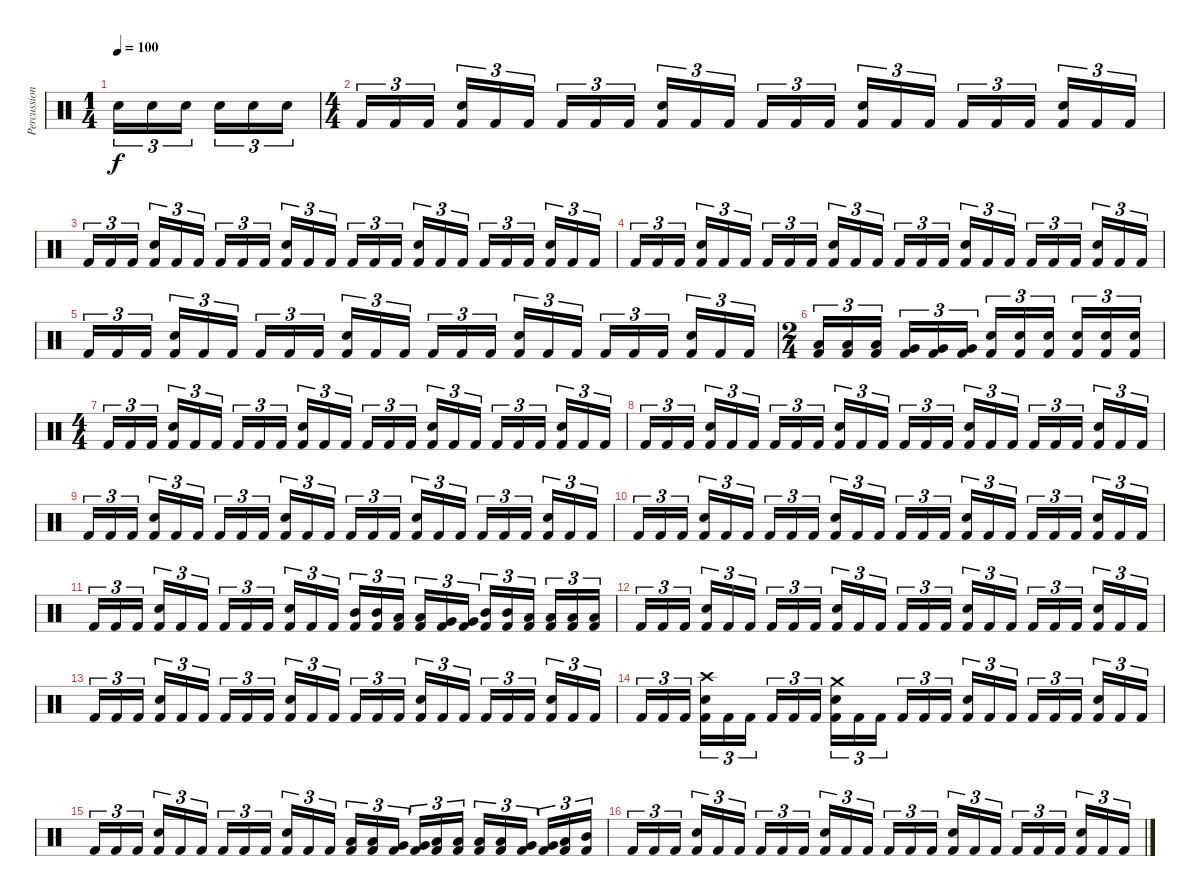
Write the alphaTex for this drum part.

\track ("Percussions" "Percussion") {instrument percussion}
\staff {score}
\articulation defaults
\ts (1 4)
\tempo 100
\clef neutral
\ks c "Electric Snare (hit)".16{tu (3 2) dy f} "Electric Snare (hit)".16{tu (3 2)} "Electric Snare (hit)".16{tu (3 2)} "Electric Snare (hit)".16{tu (3 2)} "Electric Snare (hit)".16{tu (3 2)} "Electric Snare (hit)".16{tu (3 2)}
|
\ts (4 4)
"Kick (hit) 2".16{tu (3 2)} "Kick (hit) 2".16{tu (3 2)} "Kick (hit) 2".16{tu (3 2)} ("Electric Snare (hit)" "Kick (hit) 2").16{tu (3 2)} "Kick (hit) 2".16{tu (3 2)} "Kick (hit) 2".16{tu (3 2)} "Kick (hit) 2".16{tu (3 2)} "Kick (hit) 2".16{tu (3 2)} "Kick (hit) 2".16{tu (3 2)} ("Electric Snare (hit)" "Kick (hit) 2").16{tu (3 2)} "Kick (hit) 2".16{tu (3 2)} "Kick (hit) 2".16{tu (3 2)} "Kick (hit) 2".16{tu (3 2)} "Kick (hit) 2".16{tu (3 2)} "Kick (hit) 2".16{tu (3 2)} ("Electric Snare (hit)" "Kick (hit) 2").16{tu (3 2)} "Kick (hit) 2".16{tu (3 2)} "Kick (hit) 2".16{tu (3 2)} "Kick (hit) 2".16{tu (3 2)} "Kick (hit) 2".16{tu (3 2)} "Kick (hit) 2".16{tu (3 2)} ("Electric Snare (hit)" "Kick (hit) 2").16{tu (3 2)} "Kick (hit) 2".16{tu (3 2)} "Kick (hit) 2".16{tu (3 2)} |
"Kick (hit) 2".16{tu (3 2)} "Kick (hit) 2".16{tu (3 2)} "Kick (hit) 2".16{tu (3 2)} ("Electric Snare (hit)" "Kick (hit) 2").16{tu (3 2)} "Kick (hit) 2".16{tu (3 2)} "Kick (hit) 2".16{tu (3 2)} "Kick (hit) 2".16{tu (3 2)} "Kick (hit) 2".16{tu (3 2)} "Kick (hit) 2".16{tu (3 2)} ("Electric Snare (hit)" "Kick (hit) 2").16{tu (3 2)} "Kick (hit) 2".16{tu (3 2)} "Kick (hit) 2".16{tu (3 2)} "Kick (hit) 2".16{tu (3 2)} "Kick (hit) 2".16{tu (3 2)} "Kick (hit) 2".16{tu (3 2)} ("Electric Snare (hit)" "Kick (hit) 2").16{tu (3 2)} "Kick (hit) 2".16{tu (3 2)} "Kick (hit) 2".16{tu (3 2)} "Kick (hit) 2".16{tu (3 2)} "Kick (hit) 2".16{tu (3 2)} "Kick (hit) 2".16{tu (3 2)} ("Electric Snare (hit)" "Kick (hit) 2").16{tu (3 2)} "Kick (hit) 2".16{tu (3 2)} "Kick (hit) 2".16{tu (3 2)} |
"Kick (hit) 2".16{tu (3 2)} "Kick (hit) 2".16{tu (3 2)} "Kick (hit) 2".16{tu (3 2)} ("Electric Snare (hit)" "Kick (hit) 2").16{tu (3 2)} "Kick (hit) 2".16{tu (3 2)} "Kick (hit) 2".16{tu (3 2)} "Kick (hit) 2".16{tu (3 2)} "Kick (hit) 2".16{tu (3 2)} "Kick (hit) 2".16{tu (3 2)} ("Electric Snare (hit)" "Kick (hit) 2").16{tu (3 2)} "Kick (hit) 2".16{tu (3 2)} "Kick (hit) 2".16{tu (3 2)} "Kick (hit) 2".16{tu (3 2)} "Kick (hit) 2".16{tu (3 2)} "Kick (hit) 2".16{tu (3 2)} ("Electric Snare (hit)" "Kick (hit) 2").16{tu (3 2)} "Kick (hit) 2".16{tu (3 2)} "Kick (hit) 2".16{tu (3 2)} "Kick (hit) 2".16{tu (3 2)} "Kick (hit) 2".16{tu (3 2)} "Kick (hit) 2".16{tu (3 2)} ("Electric Snare (hit)" "Kick (hit) 2").16{tu (3 2)} "Kick (hit) 2".16{tu (3 2)} "Kick (hit) 2".16{tu (3 2)} |
"Kick (hit) 2".16{tu (3 2)} "Kick (hit) 2".16{tu (3 2)} "Kick (hit) 2".16{tu (3 2)} ("Electric Snare (hit)" "Kick (hit) 2").16{tu (3 2)} "Kick (hit) 2".16{tu (3 2)} "Kick (hit) 2".16{tu (3 2)} "Kick (hit) 2".16{tu (3 2)} "Kick (hit) 2".16{tu (3 2)} "Kick (hit) 2".16{tu (3 2)} ("Electric Snare (hit)" "Kick (hit) 2").16{tu (3 2)} "Kick (hit) 2".16{tu (3 2)} "Kick (hit) 2".16{tu (3 2)} "Kick (hit) 2".16{tu (3 2)} "Kick (hit) 2".16{tu (3 2)} "Kick (hit) 2".16{tu (3 2)} ("Electric Snare (hit)" "Kick (hit) 2").16{tu (3 2)} "Kick (hit) 2".16{tu (3 2)} "Kick (hit) 2".16{tu (3 2)} "Kick (hit) 2".16{tu (3 2)} "Kick (hit) 2".16{tu (3 2)} "Kick (hit) 2".16{tu (3 2)} ("Electric Snare (hit)" "Kick (hit) 2").16{tu (3 2)} "Kick (hit) 2".16{tu (3 2)} "Kick (hit) 2".16{tu (3 2)} |
\ts (2 4)
("Low Tom (hit)" "Kick (hit) 2").16{tu (3 2)} ("Low Tom (hit)" "Kick (hit) 2").16{tu (3 2)} ("Low Tom (hit)" "Kick (hit) 2").16{tu (3 2)} ("Very Low Tom (hit)" "Kick (hit) 2").16{tu (3 2)} ("Very Low Tom (hit)" "Kick (hit) 2").16{tu (3 2)} ("Very Low Tom (hit)" "Kick (hit) 2").16{tu (3 2)} ("Electric Snare (hit)" "Kick (hit) 2").16{tu (3 2)} ("Electric Snare (hit)" "Kick (hit) 2").16{tu (3 2)} ("Electric Snare (hit)" "Kick (hit) 2").16{tu (3 2)} ("Electric Snare (hit)" "Kick (hit) 2").16{tu (3 2)} ("Electric Snare (hit)" "Kick (hit) 2").16{tu (3 2)} ("Electric Snare (hit)" "Kick (hit) 2").16{tu (3 2)} |
\ts (4 4)
"Kick (hit) 2".16{tu (3 2)} "Kick (hit) 2".16{tu (3 2)} "Kick (hit) 2".16{tu (3 2)} ("Electric Snare (hit)" "Kick (hit) 2").16{tu (3 2)} "Kick (hit) 2".16{tu (3 2)} "Kick (hit) 2".16{tu (3 2)} "Kick (hit) 2".16{tu (3 2)} "Kick (hit) 2".16{tu (3 2)} "Kick (hit) 2".16{tu (3 2)} ("Electric Snare (hit)" "Kick (hit) 2").16{tu (3 2)} "Kick (hit) 2".16{tu (3 2)} "Kick (hit) 2".16{tu (3 2)} "Kick (hit) 2".16{tu (3 2)} "Kick (hit) 2".16{tu (3 2)} "Kick (hit) 2".16{tu (3 2)} ("Electric Snare (hit)" "Kick (hit) 2").16{tu (3 2)} "Kick (hit) 2".16{tu (3 2)} "Kick (hit) 2".16{tu (3 2)} "Kick (hit) 2".16{tu (3 2)} "Kick (hit) 2".16{tu (3 2)} "Kick (hit) 2".16{tu (3 2)} ("Electric Snare (hit)" "Kick (hit) 2").16{tu (3 2)} "Kick (hit) 2".16{tu (3 2)} "Kick (hit) 2".16{tu (3 2)} |
"Kick (hit) 2".16{tu (3 2)} "Kick (hit) 2".16{tu (3 2)} "Kick (hit) 2".16{tu (3 2)} ("Electric Snare (hit)" "Kick (hit) 2").16{tu (3 2)} "Kick (hit) 2".16{tu (3 2)} "Kick (hit) 2".16{tu (3 2)} "Kick (hit) 2".16{tu (3 2)} "Kick (hit) 2".16{tu (3 2)} "Kick (hit) 2".16{tu (3 2)} ("Electric Snare (hit)" "Kick (hit) 2").16{tu (3 2)} "Kick (hit) 2".16{tu (3 2)} "Kick (hit) 2".16{tu (3 2)} "Kick (hit) 2".16{tu (3 2)} "Kick (hit) 2".16{tu (3 2)} "Kick (hit) 2".16{tu (3 2)} ("Electric Snare (hit)" "Kick (hit) 2").16{tu (3 2)} "Kick (hit) 2".16{tu (3 2)} "Kick (hit) 2".16{tu (3 2)} "Kick (hit) 2".16{tu (3 2)} "Kick (hit) 2".16{tu (3 2)} "Kick (hit) 2".16{tu (3 2)} ("Electric Snare (hit)" "Kick (hit) 2").16{tu (3 2)} "Kick (hit) 2".16{tu (3 2)} "Kick (hit) 2".16{tu (3 2)} |
"Kick (hit) 2".16{tu (3 2)} "Kick (hit) 2".16{tu (3 2)} "Kick (hit) 2".16{tu (3 2)} ("Electric Snare (hit)" "Kick (hit) 2").16{tu (3 2)} "Kick (hit) 2".16{tu (3 2)} "Kick (hit) 2".16{tu (3 2)} "Kick (hit) 2".16{tu (3 2)} "Kick (hit) 2".16{tu (3 2)} "Kick (hit) 2".16{tu (3 2)} ("Electric Snare (hit)" "Kick (hit) 2").16{tu (3 2)} "Kick (hit) 2".16{tu (3 2)} "Kick (hit) 2".16{tu (3 2)} "Kick (hit) 2".16{tu (3 2)} "Kick (hit) 2".16{tu (3 2)} "Kick (hit) 2".16{tu (3 2)} ("Electric Snare (hit)" "Kick (hit) 2").16{tu (3 2)} "Kick (hit) 2".16{tu (3 2)} "Kick (hit) 2".16{tu (3 2)} "Kick (hit) 2".16{tu (3 2)} "Kick (hit) 2".16{tu (3 2)} "Kick (hit) 2".16{tu (3 2)} ("Electric Snare (hit)" "Kick (hit) 2").16{tu (3 2)} "Kick (hit) 2".16{tu (3 2)} "Kick (hit) 2".16{tu (3 2)} |
"Kick (hit) 2".16{tu (3 2)} "Kick (hit) 2".16{tu (3 2)} "Kick (hit) 2".16{tu (3 2)} ("Electric Snare (hit)" "Kick (hit) 2").16{tu (3 2)} "Kick (hit) 2".16{tu (3 2)} "Kick (hit) 2".16{tu (3 2)} "Kick (hit) 2".16{tu (3 2)} "Kick (hit) 2".16{tu (3 2)} "Kick (hit) 2".16{tu (3 2)} ("Electric Snare (hit)" "Kick (hit) 2").16{tu (3 2)} "Kick (hit) 2".16{tu (3 2)} "Kick (hit) 2".16{tu (3 2)} "Kick (hit) 2".16{tu (3 2)} "Kick (hit) 2".16{tu (3 2)} "Kick (hit) 2".16{tu (3 2)} ("Electric Snare (hit)" "Kick (hit) 2").16{tu (3 2)} "Kick (hit) 2".16{tu (3 2)} "Kick (hit) 2".16{tu (3 2)} "Kick (hit) 2".16{tu (3 2)} "Kick (hit) 2".16{tu (3 2)} "Kick (hit) 2".16{tu (3 2)} ("Electric Snare (hit)" "Kick (hit) 2").16{tu (3 2)} "Kick (hit) 2".16{tu (3 2)} "Kick (hit) 2".16{tu (3 2)} |
"Kick (hit) 2".16{tu (3 2)} "Kick (hit) 2".16{tu (3 2)} "Kick (hit) 2".16{tu (3 2)} ("Electric Snare (hit)" "Kick (hit) 2").16{tu (3 2)} "Kick (hit) 2".16{tu (3 2)} "Kick (hit) 2".16{tu (3 2)} "Kick (hit) 2".16{tu (3 2)} "Kick (hit) 2".16{tu (3 2)} "Kick (hit) 2".16{tu (3 2)} ("Electric Snare (hit)" "Kick (hit) 2").16{tu (3 2)} "Kick (hit) 2".16{tu (3 2)} "Kick (hit) 2".16{tu (3 2)} ("Mid Tom (hit)" "Kick (hit) 2").16{tu (3 2)} ("Mid Tom (hit)" "Kick (hit) 2").16{tu (3 2)} ("Low Tom (hit)" "Kick (hit) 2").16{tu (3 2)} ("Low Tom (hit)" "Kick (hit) 2").16{tu (3 2)} ("Very Low Tom (hit)" "Kick (hit) 2").16{tu (3 2)} ("Very Low Tom (hit)" "Kick (hit) 2").16{tu (3 2)} ("Mid Tom (hit)" "Kick (hit) 2").16{tu (3 2)} ("Mid Tom (hit)" "Kick (hit) 2").16{tu (3 2)} ("Low Tom (hit)" "Kick (hit) 2").16{tu (3 2)} ("Low Tom (hit)" "Kick (hit) 2").16{tu (3 2)} ("Low Floor Tom (hit)" "Kick (hit) 2").16{tu (3 2)} ("Low Floor Tom (hit)" "Kick (hit) 2").16{tu (3 2)} |
"Kick (hit) 2".16{tu (3 2)} "Kick (hit) 2".16{tu (3 2)} "Kick (hit) 2".16{tu (3 2)} ("Electric Snare (hit)" "Kick (hit) 2").16{tu (3 2)} "Kick (hit) 2".16{tu (3 2)} "Kick (hit) 2".16{tu (3 2)} "Kick (hit) 2".16{tu (3 2)} "Kick (hit) 2".16{tu (3 2)} "Kick (hit) 2".16{tu (3 2)} ("Electric Snare (hit)" "Kick (hit) 2").16{tu (3 2)} "Kick (hit) 2".16{tu (3 2)} "Kick (hit) 2".16{tu (3 2)} "Kick (hit) 2".16{tu (3 2)} "Kick (hit) 2".16{tu (3 2)} "Kick (hit) 2".16{tu (3 2)} ("Electric Snare (hit)" "Kick (hit) 2").16{tu (3 2)} "Kick (hit) 2".16{tu (3 2)} "Kick (hit) 2".16{tu (3 2)} "Kick (hit) 2".16{tu (3 2)} "Kick (hit) 2".16{tu (3 2)} "Kick (hit) 2".16{tu (3 2)} ("Electric Snare (hit)" "Kick (hit) 2").16{tu (3 2)} "Kick (hit) 2".16{tu (3 2)} "Kick (hit) 2".16{tu (3 2)} |
"Kick (hit) 2".16{tu (3 2)} "Kick (hit) 2".16{tu (3 2)} "Kick (hit) 2".16{tu (3 2)} ("Electric Snare (hit)" "Kick (hit) 2").16{tu (3 2)} "Kick (hit) 2".16{tu (3 2)} "Kick (hit) 2".16{tu (3 2)} "Kick (hit) 2".16{tu (3 2)} "Kick (hit) 2".16{tu (3 2)} "Kick (hit) 2".16{tu (3 2)} ("Electric Snare (hit)" "Kick (hit) 2").16{tu (3 2)} "Kick (hit) 2".16{tu (3 2)} "Kick (hit) 2".16{tu (3 2)} "Kick (hit) 2".16{tu (3 2)} "Kick (hit) 2".16{tu (3 2)} "Kick (hit) 2".16{tu (3 2)} ("Electric Snare (hit)" "Kick (hit) 2").16{tu (3 2)} "Kick (hit) 2".16{tu (3 2)} "Kick (hit) 2".16{tu (3 2)} "Kick (hit) 2".16{tu (3 2)} "Kick (hit) 2".16{tu (3 2)} "Kick (hit) 2".16{tu (3 2)} ("Electric Snare (hit)" "Kick (hit) 2").16{tu (3 2)} "Kick (hit) 2".16{tu (3 2)} "Kick (hit) 2".16{tu (3 2)} |
"Kick (hit) 2".16{tu (3 2)} "Kick (hit) 2".16{tu (3 2)} "Kick (hit) 2".16{tu (3 2)} ("Crash high (hit)" "Electric Snare (hit)" "Kick (hit) 2").16{tu (3 2)} "Kick (hit) 2".16{tu (3 2)} "Kick (hit) 2".16{tu (3 2)} "Kick (hit) 2".16{tu (3 2)} "Kick (hit) 2".16{tu (3 2)} "Kick (hit) 2".16{tu (3 2)} ("Crash medium (hit)" "Electric Snare (hit)" "Kick (hit) 2").16{tu (3 2)} "Kick (hit) 2".16{tu (3 2)} "Kick (hit) 2".16{tu (3 2)} "Kick (hit) 2".16{tu (3 2)} "Kick (hit) 2".16{tu (3 2)} "Kick (hit) 2".16{tu (3 2)} ("Electric Snare (hit)" "Kick (hit) 2").16{tu (3 2)} "Kick (hit) 2".16{tu (3 2)} "Kick (hit) 2".16{tu (3 2)} "Kick (hit) 2".16{tu (3 2)} "Kick (hit) 2".16{tu (3 2)} "Kick (hit) 2".16{tu (3 2)} ("Electric Snare (hit)" "Kick (hit) 2").16{tu (3 2)} "Kick (hit) 2".16{tu (3 2)} "Kick (hit) 2".16{tu (3 2)} |
"Kick (hit) 2".16{tu (3 2)} "Kick (hit) 2".16{tu (3 2)} "Kick (hit) 2".16{tu (3 2)} ("Electric Snare (hit)" "Kick (hit) 2").16{tu (3 2)} "Kick (hit) 2".16{tu (3 2)} "Kick (hit) 2".16{tu (3 2)} "Kick (hit) 2".16{tu (3 2)} "Kick (hit) 2".16{tu (3 2)} "Kick (hit) 2".16{tu (3 2)} ("Electric Snare (hit)" "Kick (hit) 2").16{tu (3 2)} "Kick (hit) 2".16{tu (3 2)} "Kick (hit) 2".16{tu (3 2)} ("Low Tom (hit)" "Kick (hit) 2").16{tu (3 2)} ("Low Tom (hit)" "Kick (hit) 2").16{tu (3 2)} ("Very Low Tom (hit)" "Kick (hit) 2").16{tu (3 2)} ("Very Low Tom (hit)" "Kick (hit) 2").16{tu (3 2)} ("Low Floor Tom (hit)" "Kick (hit) 2").16{tu (3 2)} ("Low Floor Tom (hit)" "Kick (hit) 2").16{tu (3 2)} ("Low Tom (hit)" "Kick (hit) 2").16{tu (3 2)} ("Low Tom (hit)" "Kick (hit) 2").16{tu (3 2)} ("Very Low Tom (hit)" "Kick (hit) 2").16{tu (3 2)} ("Very Low Tom (hit)" "Kick (hit) 2").16{tu (3 2)} ("Low Floor Tom (hit)" "Kick (hit) 2").16{tu (3 2)} ("Mid Tom (hit)" "Kick (hit) 2").16{tu (3 2)} |
"Kick (hit) 2".16{tu (3 2)} "Kick (hit) 2".16{tu (3 2)} "Kick (hit) 2".16{tu (3 2)} ("Electric Snare (hit)" "Kick (hit) 2").16{tu (3 2)} "Kick (hit) 2".16{tu (3 2)} "Kick (hit) 2".16{tu (3 2)} "Kick (hit) 2".16{tu (3 2)} "Kick (hit) 2".16{tu (3 2)} "Kick (hit) 2".16{tu (3 2)} ("Electric Snare (hit)" "Kick (hit) 2").16{tu (3 2)} "Kick (hit) 2".16{tu (3 2)} "Kick (hit) 2".16{tu (3 2)} "Kick (hit) 2".16{tu (3 2)} "Kick (hit) 2".16{tu (3 2)} "Kick (hit) 2".16{tu (3 2)} ("Electric Snare (hit)" "Kick (hit) 2").16{tu (3 2)} "Kick (hit) 2".16{tu (3 2)} "Kick (hit) 2".16{tu (3 2)} "Kick (hit) 2".16{tu (3 2)} "Kick (hit) 2".16{tu (3 2)} "Kick (hit) 2".16{tu (3 2)} ("Electric Snare (hit)" "Kick (hit) 2").16{tu (3 2)} "Kick (hit) 2".16{tu (3 2)} "Kick (hit) 2".16{tu (3 2)}
